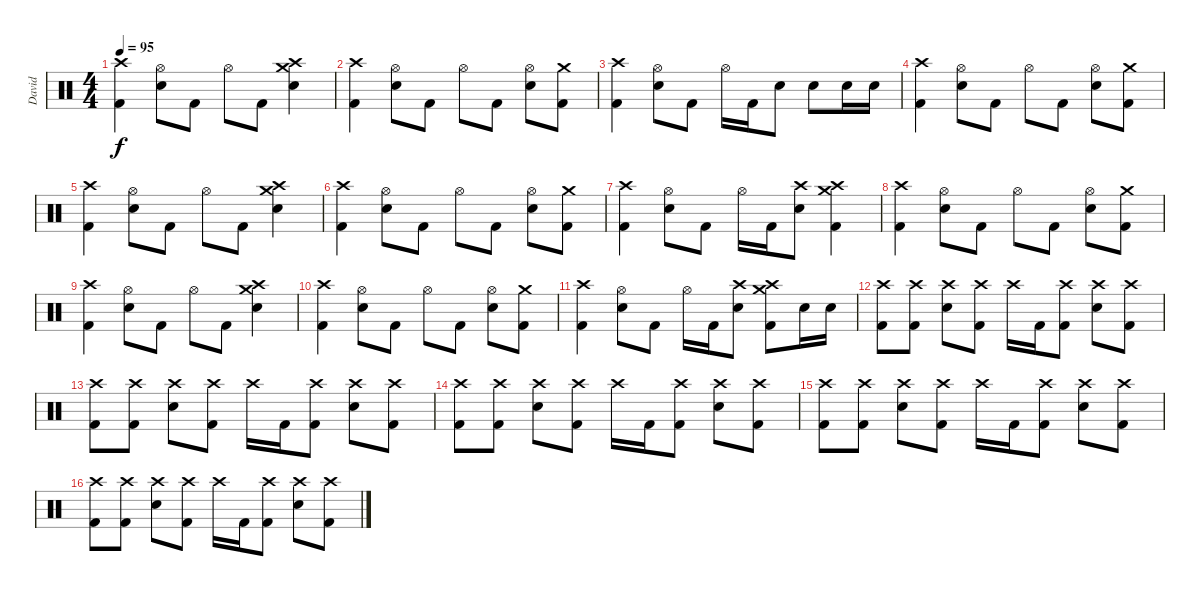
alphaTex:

\track ("David" "David") {instrument percussion}
\staff {score}
\articulation defaults
\ts (4 4)
\tempo 95
\clef neutral
\ks c
("Crash high (hit)" "Kick (hit) 2").4{dy f} ("Hi-Hat (open)" "Electric Snare (hit)").8 "Kick (hit) 2".8 "Hi-Hat (open)".8 "Kick (hit) 2".8 ("Crash high (hit)" "Crash medium (hit)" "Electric Snare (hit)").4 |
("Crash high (hit)" "Kick (hit) 2").4 ("Hi-Hat (open)" "Electric Snare (hit)").8 "Kick (hit) 2".8 "Hi-Hat (open)".8 "Kick (hit) 2".8 ("Hi-Hat (open)" "Electric Snare (hit)").8 ("Crash medium (hit)" "Kick (hit) 2").8 |
("Crash high (hit)" "Kick (hit) 2").4 ("Hi-Hat (open)" "Electric Snare (hit)").8 "Kick (hit) 2".8 "Hi-Hat (open)".16 "Kick (hit) 2".16 "Electric Snare (hit)".8 "Electric Snare (hit)".8 "Electric Snare (hit)".16 "Electric Snare (hit)".16 |
("Crash high (hit)" "Kick (hit) 2").4 ("Hi-Hat (open)" "Electric Snare (hit)").8 "Kick (hit) 2".8 "Hi-Hat (open)".8 "Kick (hit) 2".8 ("Hi-Hat (open)" "Electric Snare (hit)").8 ("Crash medium (hit)" "Kick (hit) 2").8 |
("Crash high (hit)" "Kick (hit) 2").4 ("Hi-Hat (open)" "Electric Snare (hit)").8 "Kick (hit) 2".8 "Hi-Hat (open)".8 "Kick (hit) 2".8 ("Crash high (hit)" "Crash medium (hit)" "Electric Snare (hit)").4 |
("Crash high (hit)" "Kick (hit) 2").4 ("Hi-Hat (open)" "Electric Snare (hit)").8 "Kick (hit) 2".8 "Hi-Hat (open)".8 "Kick (hit) 2".8 ("Hi-Hat (open)" "Electric Snare (hit)").8 ("Crash medium (hit)" "Kick (hit) 2").8 |
("Crash high (hit)" "Kick (hit) 2").4 ("Hi-Hat (open)" "Electric Snare (hit)").8 "Kick (hit) 2".8 "Hi-Hat (open)".16 "Kick (hit) 2".16 ("Crash high (hit)" "Electric Snare (hit)").8 ("Crash high (hit)" "Crash medium (hit)" "Kick (hit) 2").4 |
("Crash high (hit)" "Kick (hit) 2").4 ("Hi-Hat (open)" "Electric Snare (hit)").8 "Kick (hit) 2".8 "Hi-Hat (open)".8 "Kick (hit) 2".8 ("Hi-Hat (open)" "Electric Snare (hit)").8 ("Crash medium (hit)" "Kick (hit) 2").8 |
("Crash high (hit)" "Kick (hit) 2").4 ("Hi-Hat (open)" "Electric Snare (hit)").8 "Kick (hit) 2".8 "Hi-Hat (open)".8 "Kick (hit) 2".8 ("Crash high (hit)" "Crash medium (hit)" "Electric Snare (hit)").4 |
("Crash high (hit)" "Kick (hit) 2").4 ("Hi-Hat (open)" "Electric Snare (hit)").8 "Kick (hit) 2".8 "Hi-Hat (open)".8 "Kick (hit) 2".8 ("Hi-Hat (open)" "Electric Snare (hit)").8 ("Crash medium (hit)" "Kick (hit) 2").8 |
("Crash high (hit)" "Kick (hit) 2").4 ("Hi-Hat (open)" "Electric Snare (hit)").8 "Kick (hit) 2".8 "Hi-Hat (open)".16 "Kick (hit) 2".16 ("Crash high (hit)" "Electric Snare (hit)").8 ("Crash high (hit)" "Crash medium (hit)" "Kick (hit) 2").8 "Electric Snare (hit)".16 "Electric Snare (hit)".16 |
("Crash high (hit)" "Kick (hit) 2").8 ("Crash high (hit)" "Kick (hit) 2").8 ("Crash high (hit)" "Electric Snare (hit)").8 ("Crash high (hit)" "Kick (hit) 2").8 "Crash high (hit)".16 "Kick (hit) 2".16 ("Crash high (hit)" "Kick (hit) 2").8 ("Crash high (hit)" "Electric Snare (hit)").8 ("Crash high (hit)" "Kick (hit) 2").8 |
("Crash high (hit)" "Kick (hit) 2").8 ("Crash high (hit)" "Kick (hit) 2").8 ("Crash high (hit)" "Electric Snare (hit)").8 ("Crash high (hit)" "Kick (hit) 2").8 "Crash high (hit)".16 "Kick (hit) 2".16 ("Crash high (hit)" "Kick (hit) 2").8 ("Crash high (hit)" "Electric Snare (hit)").8 ("Crash high (hit)" "Kick (hit) 2").8 |
("Crash high (hit)" "Kick (hit) 2").8 ("Crash high (hit)" "Kick (hit) 2").8 ("Crash high (hit)" "Electric Snare (hit)").8 ("Crash high (hit)" "Kick (hit) 2").8 "Crash high (hit)".16 "Kick (hit) 2".16 ("Crash high (hit)" "Kick (hit) 2").8 ("Crash high (hit)" "Electric Snare (hit)").8 ("Crash high (hit)" "Kick (hit) 2").8 |
("Crash high (hit)" "Kick (hit) 2").8 ("Crash high (hit)" "Kick (hit) 2").8 ("Crash high (hit)" "Electric Snare (hit)").8 ("Crash high (hit)" "Kick (hit) 2").8 "Crash high (hit)".16 "Kick (hit) 2".16 ("Crash high (hit)" "Kick (hit) 2").8 ("Crash high (hit)" "Electric Snare (hit)").8 ("Crash high (hit)" "Kick (hit) 2").8 |
("Crash high (hit)" "Kick (hit) 2").8 ("Crash high (hit)" "Kick (hit) 2").8 ("Crash high (hit)" "Electric Snare (hit)").8 ("Crash high (hit)" "Kick (hit) 2").8 "Crash high (hit)".16 "Kick (hit) 2".16 ("Crash high (hit)" "Kick (hit) 2").8 ("Crash high (hit)" "Electric Snare (hit)").8 ("Crash high (hit)" "Kick (hit) 2").8
